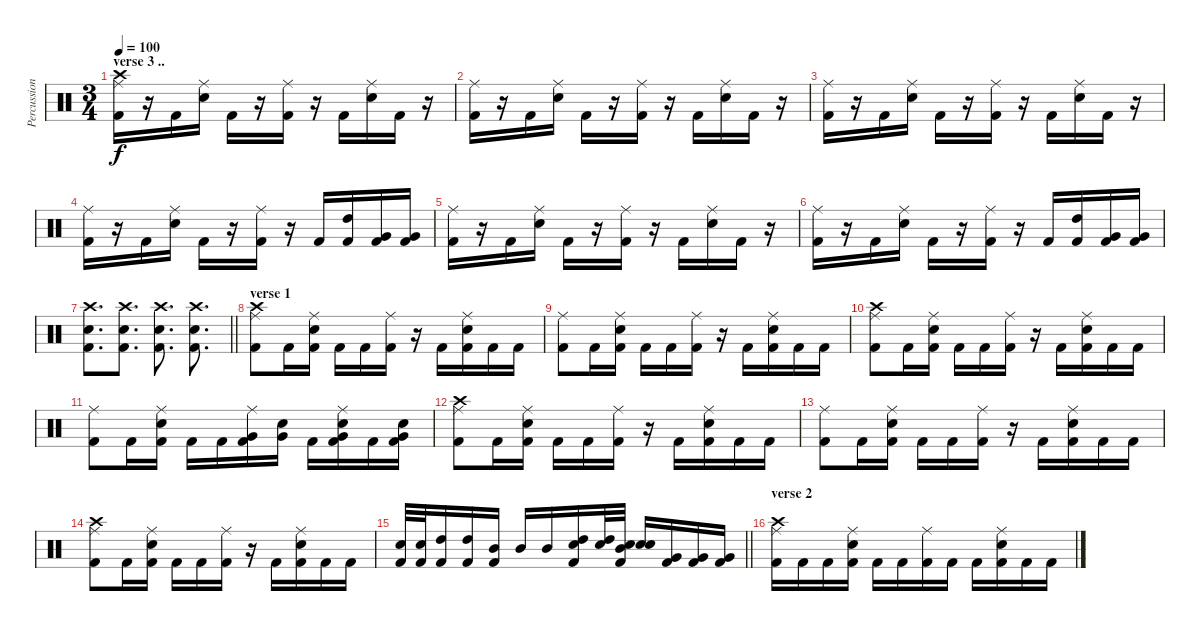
\track ("Percussions" "Percussion") {instrument percussion}
\staff {score}
\articulation defaults
\ts (3 4)
\section ("" "verse 3 ..")
\tempo 100
\clef neutral
\ks c
("Crash high (hit)" "Ride (middle)" "Kick (hit) 2").16{dy f} r.16 "Kick (hit) 2".16 ("Ride (middle)" "Electric Snare (hit)").16 "Kick (hit) 2".16 r.16 ("Ride (middle)" "Kick (hit) 2").16 r.16 "Kick (hit) 2".16 ("Ride (middle)" "Electric Snare (hit)").16 "Kick (hit) 2".16 r.16 |
("Ride (middle)" "Kick (hit) 2").16 r.16 "Kick (hit) 2".16 ("Ride (middle)" "Electric Snare (hit)").16 "Kick (hit) 2".16 r.16 ("Ride (middle)" "Kick (hit) 2").16 r.16 "Kick (hit) 2".16 ("Ride (middle)" "Electric Snare (hit)").16 "Kick (hit) 2".16 r.16 |
("Ride (middle)" "Kick (hit) 2").16 r.16 "Kick (hit) 2".16 ("Ride (middle)" "Electric Snare (hit)").16 "Kick (hit) 2".16 r.16 ("Ride (middle)" "Kick (hit) 2").16 r.16 "Kick (hit) 2".16 ("Ride (middle)" "Electric Snare (hit)").16 "Kick (hit) 2".16 r.16 |
("Ride (middle)" "Kick (hit) 2").16 r.16 "Kick (hit) 2".16 ("Ride (middle)" "Electric Snare (hit)").16 "Kick (hit) 2".16 r.16 ("Ride (middle)" "Kick (hit) 2").16 r.16 "Kick (hit) 2".16 ("High Tom (hit)" "Kick (hit) 2").16 ("Very Low Tom (hit)" "Kick (hit) 2").16 ("Very Low Tom (hit)" "Kick (hit) 2").16 |
("Ride (middle)" "Kick (hit) 2").16 r.16 "Kick (hit) 2".16 ("Ride (middle)" "Electric Snare (hit)").16 "Kick (hit) 2".16 r.16 ("Ride (middle)" "Kick (hit) 2").16 r.16 "Kick (hit) 2".16 ("Ride (middle)" "Electric Snare (hit)").16 "Kick (hit) 2".16 r.16 |
("Ride (middle)" "Kick (hit) 2").16 r.16 "Kick (hit) 2".16 ("Ride (middle)" "Electric Snare (hit)").16 "Kick (hit) 2".16 r.16 ("Ride (middle)" "Kick (hit) 2").16 r.16 "Kick (hit) 2".16 ("High Tom (hit)" "Kick (hit) 2").16 ("Very Low Tom (hit)" "Kick (hit) 2").16 ("Very Low Tom (hit)" "Kick (hit) 2").16 |
\barLineRight lightlight
("Crash high (hit)" "Electric Snare (hit)" "Kick (hit) 2").8{d} ("Crash high (hit)" "Electric Snare (hit)" "Kick (hit) 2").8{d} ("Crash high (hit)" "Electric Snare (hit)" "Kick (hit) 2").8{d} ("Crash high (hit)" "Electric Snare (hit)" "Kick (hit) 2").8{d} |
\section ("" "verse 1")
("Crash high (hit)" "Ride (middle)" "Kick (hit) 2").8 "Kick (hit) 2".16 ("Ride (middle)" "Electric Snare (hit)" "Kick (hit) 2").16 "Kick (hit) 2".16 "Kick (hit) 2".16 ("Ride (middle)" "Kick (hit) 2").16 r.16 "Kick (hit) 2".16 ("Ride (middle)" "Electric Snare (hit)" "Kick (hit) 2").16 "Kick (hit) 2".16 "Kick (hit) 2".16 |
("Ride (middle)" "Kick (hit) 2").8 "Kick (hit) 2".16 ("Ride (middle)" "Electric Snare (hit)" "Kick (hit) 2").16 "Kick (hit) 2".16 "Kick (hit) 2".16 ("Ride (middle)" "Kick (hit) 2").16 r.16 "Kick (hit) 2".16 ("Ride (middle)" "Electric Snare (hit)" "Kick (hit) 2").16 "Kick (hit) 2".16 "Kick (hit) 2".16 |
("Crash high (hit)" "Ride (middle)" "Kick (hit) 2").8 "Kick (hit) 2".16 ("Ride (middle)" "Electric Snare (hit)" "Kick (hit) 2").16 "Kick (hit) 2".16 "Kick (hit) 2".16 ("Ride (middle)" "Kick (hit) 2").16 r.16 "Kick (hit) 2".16 ("Ride (middle)" "Electric Snare (hit)" "Kick (hit) 2").16 "Kick (hit) 2".16 "Kick (hit) 2".16 |
("Ride (middle)" "Kick (hit) 2").8 "Kick (hit) 2".16 ("Ride (middle)" "Electric Snare (hit)" "Kick (hit) 2").16 "Kick (hit) 2".16 "Kick (hit) 2".16 ("Ride (middle)" "Very Low Tom (hit)" "Kick (hit) 2").16 ("Electric Snare (hit)" "Very Low Tom (hit)").16 "Kick (hit) 2".16 ("Ride (middle)" "Electric Snare (hit)" "Very Low Tom (hit)" "Kick (hit) 2").16 "Kick (hit) 2".16 ("Electric Snare (hit)" "Very Low Tom (hit)" "Kick (hit) 2").16 |
("Crash high (hit)" "Ride (middle)" "Kick (hit) 2").8 "Kick (hit) 2".16 ("Ride (middle)" "Electric Snare (hit)" "Kick (hit) 2").16 "Kick (hit) 2".16 "Kick (hit) 2".16 ("Ride (middle)" "Kick (hit) 2").16 r.16 "Kick (hit) 2".16 ("Ride (middle)" "Electric Snare (hit)" "Kick (hit) 2").16 "Kick (hit) 2".16 "Kick (hit) 2".16 |
("Ride (middle)" "Kick (hit) 2").8 "Kick (hit) 2".16 ("Ride (middle)" "Electric Snare (hit)" "Kick (hit) 2").16 "Kick (hit) 2".16 "Kick (hit) 2".16 ("Ride (middle)" "Kick (hit) 2").16 r.16 "Kick (hit) 2".16 ("Ride (middle)" "Electric Snare (hit)" "Kick (hit) 2").16 "Kick (hit) 2".16 "Kick (hit) 2".16 |
("Crash high (hit)" "Ride (middle)" "Kick (hit) 2").8 "Kick (hit) 2".16 ("Ride (middle)" "Electric Snare (hit)" "Kick (hit) 2").16 "Kick (hit) 2".16 "Kick (hit) 2".16 ("Ride (middle)" "Kick (hit) 2").16 r.16 "Kick (hit) 2".16 ("Ride (middle)" "Electric Snare (hit)" "Kick (hit) 2").16 "Kick (hit) 2".16 "Kick (hit) 2".16 |
\barLineRight lightlight
("Electric Snare (hit)" "Kick (hit) 2").32 ("Electric Snare (hit)" "Kick (hit) 2").32 ("High Tom (hit)" "Kick (hit) 2").16 ("High Tom (hit)" "Kick (hit) 2").16 ("Mid Tom (hit)" "Kick (hit) 2").16 "Mid Tom (hit)".16 "Mid Tom (hit)".16 ("High Tom (hit)" "Electric Snare (hit)" "Kick (hit) 2").16 ("High Tom (hit)" "Electric Snare (hit)").32 ("Mid Tom (hit)" "Electric Snare (hit)" "Kick (hit) 2").32 ("Electric Snare (hit)" "Electric Snare (hit)").16 ("Very Low Tom (hit)" "Kick (hit) 2").16 ("Very Low Tom (hit)" "Kick (hit) 2").16 ("Very Low Tom (hit)" "Kick (hit) 2").16 |
\section ("" "verse 2")
("Crash high (hit)" "Ride (middle)" "Kick (hit) 2").16 "Kick (hit) 2".16 "Kick (hit) 2".16 ("Ride (middle)" "Electric Snare (hit)" "Kick (hit) 2").16 "Kick (hit) 2".16 "Kick (hit) 2".16 ("Ride (middle)" "Kick (hit) 2").16 "Kick (hit) 2".16 "Kick (hit) 2".16 ("Ride (middle)" "Electric Snare (hit)" "Kick (hit) 2").16 "Kick (hit) 2".16 "Kick (hit) 2".16
